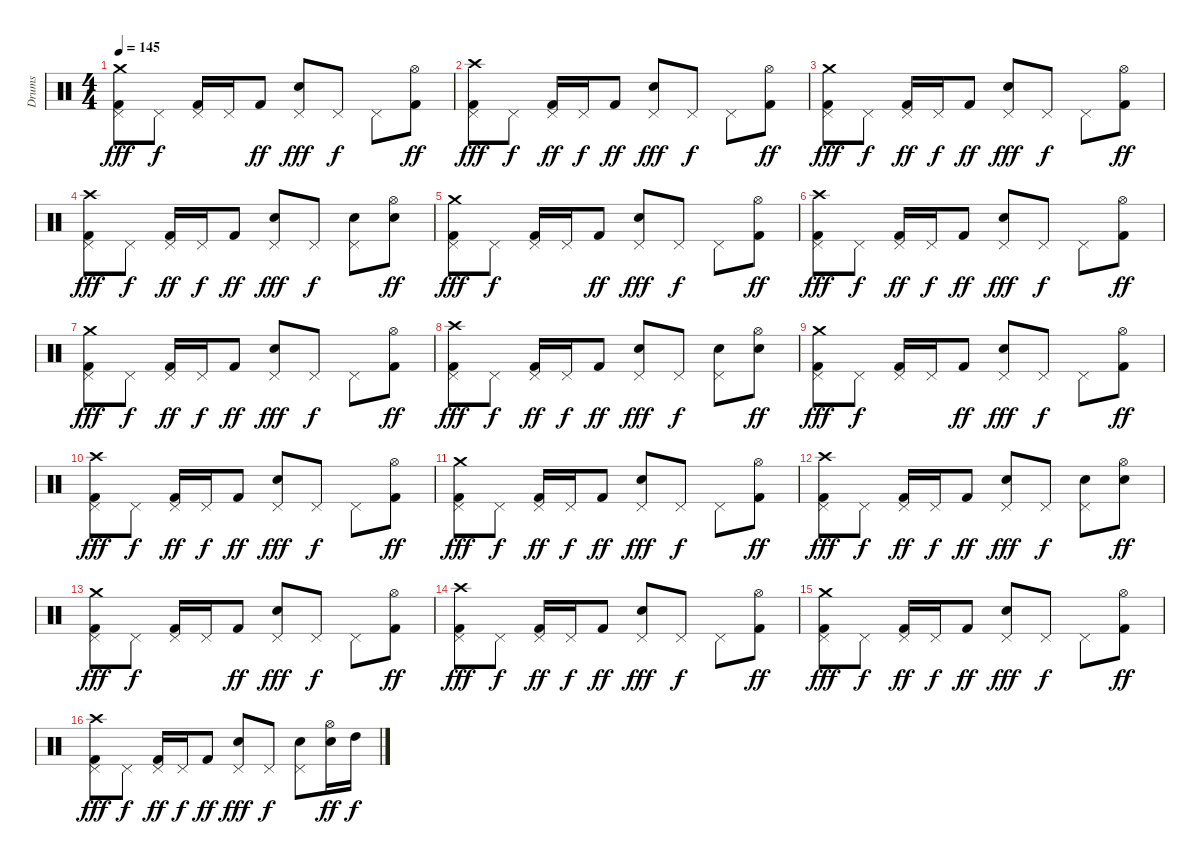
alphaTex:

\track ("Drums" "Drums") {instrument percussion}
\staff {score}
\articulation defaults
\ts (4 4)
\tempo 145
\clef neutral
\ks c
("Crash medium (hit)" "Pedal Hi-Hat (hit)" "Kick (hit) 2").8{dy fff} "Pedal Hi-Hat (hit)".8{dy f} ("Pedal Hi-Hat (hit)" "Kick (hit) 2").16 "Pedal Hi-Hat (hit)".16 "Kick (hit) 2".8{dy ff} ("Pedal Hi-Hat (hit)" "Snare (hit) 2").8{dy fff} "Pedal Hi-Hat (hit)".8{dy f} "Pedal Hi-Hat (hit)".8 ("Hi-Hat (open)" "Kick (hit) 2").8{dy ff} |
("Crash high (hit)" "Pedal Hi-Hat (hit)" "Kick (hit) 2").8{dy fff} "Pedal Hi-Hat (hit)".8{dy f} ("Pedal Hi-Hat (hit)" "Kick (hit) 2").16{dy ff} "Pedal Hi-Hat (hit)".16{dy f} "Kick (hit) 2".8{dy ff} ("Pedal Hi-Hat (hit)" "Snare (hit) 2").8{dy fff} "Pedal Hi-Hat (hit)".8{dy f} "Pedal Hi-Hat (hit)".8 ("Hi-Hat (open)" "Kick (hit) 2").8{dy ff} |
("Crash medium (hit)" "Pedal Hi-Hat (hit)" "Kick (hit) 2").8{dy fff} "Pedal Hi-Hat (hit)".8{dy f} ("Pedal Hi-Hat (hit)" "Kick (hit) 2").16{dy ff} "Pedal Hi-Hat (hit)".16{dy f} "Kick (hit) 2".8{dy ff} ("Pedal Hi-Hat (hit)" "Snare (hit) 2").8{dy fff} "Pedal Hi-Hat (hit)".8{dy f} "Pedal Hi-Hat (hit)".8 ("Hi-Hat (open)" "Kick (hit) 2").8{dy ff} |
("Crash high (hit)" "Pedal Hi-Hat (hit)" "Kick (hit) 2").8{dy fff} "Pedal Hi-Hat (hit)".8{dy f} ("Pedal Hi-Hat (hit)" "Kick (hit) 2").16{dy ff} "Pedal Hi-Hat (hit)".16{dy f} "Kick (hit) 2".8{dy ff} ("Pedal Hi-Hat (hit)" "Snare (hit) 2").8{dy fff} "Pedal Hi-Hat (hit)".8{dy f} ("Pedal Hi-Hat (hit)" "Snare (hit) 2").8 ("Hi-Hat (open)" "Snare (hit) 2").8{dy ff} |
("Crash medium (hit)" "Pedal Hi-Hat (hit)" "Kick (hit) 2").8{dy fff} "Pedal Hi-Hat (hit)".8{dy f} ("Pedal Hi-Hat (hit)" "Kick (hit) 2").16 "Pedal Hi-Hat (hit)".16 "Kick (hit) 2".8{dy ff} ("Pedal Hi-Hat (hit)" "Snare (hit) 2").8{dy fff} "Pedal Hi-Hat (hit)".8{dy f} "Pedal Hi-Hat (hit)".8 ("Hi-Hat (open)" "Kick (hit) 2").8{dy ff} |
("Crash high (hit)" "Pedal Hi-Hat (hit)" "Kick (hit) 2").8{dy fff} "Pedal Hi-Hat (hit)".8{dy f} ("Pedal Hi-Hat (hit)" "Kick (hit) 2").16{dy ff} "Pedal Hi-Hat (hit)".16{dy f} "Kick (hit) 2".8{dy ff} ("Pedal Hi-Hat (hit)" "Snare (hit) 2").8{dy fff} "Pedal Hi-Hat (hit)".8{dy f} "Pedal Hi-Hat (hit)".8 ("Hi-Hat (open)" "Kick (hit) 2").8{dy ff} |
("Crash medium (hit)" "Pedal Hi-Hat (hit)" "Kick (hit) 2").8{dy fff} "Pedal Hi-Hat (hit)".8{dy f} ("Pedal Hi-Hat (hit)" "Kick (hit) 2").16{dy ff} "Pedal Hi-Hat (hit)".16{dy f} "Kick (hit) 2".8{dy ff} ("Pedal Hi-Hat (hit)" "Snare (hit) 2").8{dy fff} "Pedal Hi-Hat (hit)".8{dy f} "Pedal Hi-Hat (hit)".8 ("Hi-Hat (open)" "Kick (hit) 2").8{dy ff} |
("Crash high (hit)" "Pedal Hi-Hat (hit)" "Kick (hit) 2").8{dy fff} "Pedal Hi-Hat (hit)".8{dy f} ("Pedal Hi-Hat (hit)" "Kick (hit) 2").16{dy ff} "Pedal Hi-Hat (hit)".16{dy f} "Kick (hit) 2".8{dy ff} ("Pedal Hi-Hat (hit)" "Snare (hit) 2").8{dy fff} "Pedal Hi-Hat (hit)".8{dy f} ("Pedal Hi-Hat (hit)" "Snare (hit) 2").8 ("Hi-Hat (open)" "Snare (hit) 2").8{dy ff} |
("Crash medium (hit)" "Pedal Hi-Hat (hit)" "Kick (hit) 2").8{dy fff} "Pedal Hi-Hat (hit)".8{dy f} ("Pedal Hi-Hat (hit)" "Kick (hit) 2").16 "Pedal Hi-Hat (hit)".16 "Kick (hit) 2".8{dy ff} ("Pedal Hi-Hat (hit)" "Snare (hit) 2").8{dy fff} "Pedal Hi-Hat (hit)".8{dy f} "Pedal Hi-Hat (hit)".8 ("Hi-Hat (open)" "Kick (hit) 2").8{dy ff} |
("Crash high (hit)" "Pedal Hi-Hat (hit)" "Kick (hit) 2").8{dy fff} "Pedal Hi-Hat (hit)".8{dy f} ("Pedal Hi-Hat (hit)" "Kick (hit) 2").16{dy ff} "Pedal Hi-Hat (hit)".16{dy f} "Kick (hit) 2".8{dy ff} ("Pedal Hi-Hat (hit)" "Snare (hit) 2").8{dy fff} "Pedal Hi-Hat (hit)".8{dy f} "Pedal Hi-Hat (hit)".8 ("Hi-Hat (open)" "Kick (hit) 2").8{dy ff} |
("Crash medium (hit)" "Pedal Hi-Hat (hit)" "Kick (hit) 2").8{dy fff} "Pedal Hi-Hat (hit)".8{dy f} ("Pedal Hi-Hat (hit)" "Kick (hit) 2").16{dy ff} "Pedal Hi-Hat (hit)".16{dy f} "Kick (hit) 2".8{dy ff} ("Pedal Hi-Hat (hit)" "Snare (hit) 2").8{dy fff} "Pedal Hi-Hat (hit)".8{dy f} "Pedal Hi-Hat (hit)".8 ("Hi-Hat (open)" "Kick (hit) 2").8{dy ff} |
("Crash high (hit)" "Pedal Hi-Hat (hit)" "Kick (hit) 2").8{dy fff} "Pedal Hi-Hat (hit)".8{dy f} ("Pedal Hi-Hat (hit)" "Kick (hit) 2").16{dy ff} "Pedal Hi-Hat (hit)".16{dy f} "Kick (hit) 2".8{dy ff} ("Pedal Hi-Hat (hit)" "Snare (hit) 2").8{dy fff} "Pedal Hi-Hat (hit)".8{dy f} ("Pedal Hi-Hat (hit)" "Snare (hit) 2").8 ("Hi-Hat (open)" "Snare (hit) 2").8{dy ff} |
("Crash medium (hit)" "Pedal Hi-Hat (hit)" "Kick (hit) 2").8{dy fff} "Pedal Hi-Hat (hit)".8{dy f} ("Pedal Hi-Hat (hit)" "Kick (hit) 2").16 "Pedal Hi-Hat (hit)".16 "Kick (hit) 2".8{dy ff} ("Pedal Hi-Hat (hit)" "Snare (hit) 2").8{dy fff} "Pedal Hi-Hat (hit)".8{dy f} "Pedal Hi-Hat (hit)".8 ("Hi-Hat (open)" "Kick (hit) 2").8{dy ff} |
("Crash high (hit)" "Pedal Hi-Hat (hit)" "Kick (hit) 2").8{dy fff} "Pedal Hi-Hat (hit)".8{dy f} ("Pedal Hi-Hat (hit)" "Kick (hit) 2").16{dy ff} "Pedal Hi-Hat (hit)".16{dy f} "Kick (hit) 2".8{dy ff} ("Pedal Hi-Hat (hit)" "Snare (hit) 2").8{dy fff} "Pedal Hi-Hat (hit)".8{dy f} "Pedal Hi-Hat (hit)".8 ("Hi-Hat (open)" "Kick (hit) 2").8{dy ff} |
("Crash medium (hit)" "Pedal Hi-Hat (hit)" "Kick (hit) 2").8{dy fff} "Pedal Hi-Hat (hit)".8{dy f} ("Pedal Hi-Hat (hit)" "Kick (hit) 2").16{dy ff} "Pedal Hi-Hat (hit)".16{dy f} "Kick (hit) 2".8{dy ff} ("Pedal Hi-Hat (hit)" "Snare (hit) 2").8{dy fff} "Pedal Hi-Hat (hit)".8{dy f} "Pedal Hi-Hat (hit)".8 ("Hi-Hat (open)" "Kick (hit) 2").8{dy ff} |
("Crash high (hit)" "Pedal Hi-Hat (hit)" "Kick (hit) 2").8{dy fff} "Pedal Hi-Hat (hit)".8{dy f} ("Pedal Hi-Hat (hit)" "Kick (hit) 2").16{dy ff} "Pedal Hi-Hat (hit)".16{dy f} "Kick (hit) 2".8{dy ff} ("Pedal Hi-Hat (hit)" "Snare (hit) 2").8{dy fff} "Pedal Hi-Hat (hit)".8{dy f} ("Pedal Hi-Hat (hit)" "Snare (hit) 2").8 ("Hi-Hat (open)" "Snare (hit) 2").16{dy ff} "High Tom (hit)".16{dy f}
